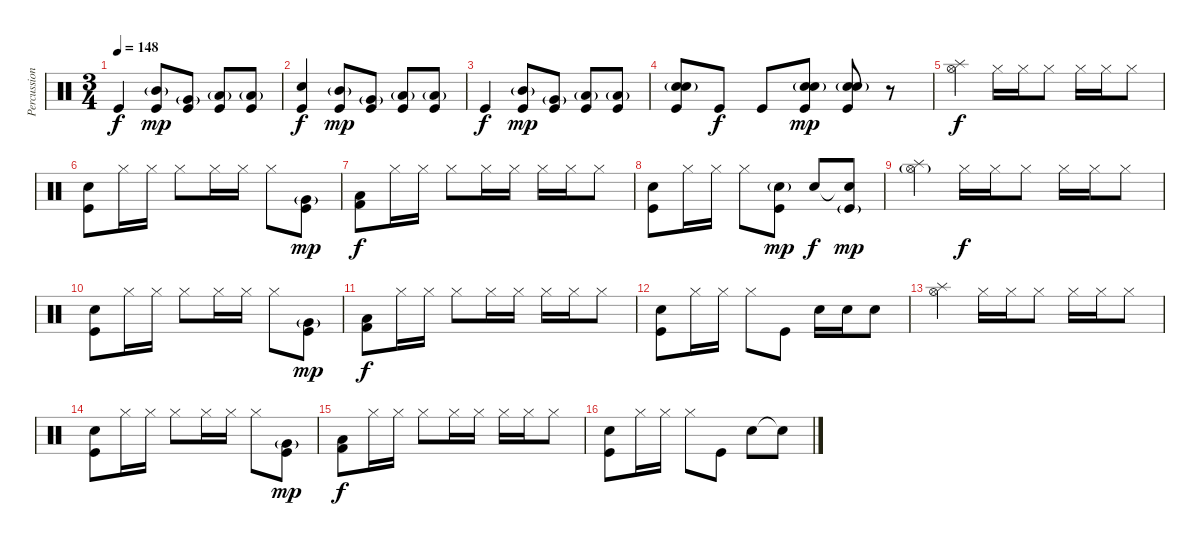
\track ("Percussion" "Percussion") {instrument percussion}
\staff {score}
\articulation defaults
\ts (3 4)
\tempo 148
\clef neutral
\ks c "Kick (hit)".4{dy f}
("Mid Tom (hit)"{g} "Kick (hit)").8{dy mp} ("Very Low Tom (hit)"{g} "Kick (hit)").8 ("Low Tom (hit)"{g} "Kick (hit)").8 ("Low Floor Tom (hit)"{g} "Kick (hit)").8 |
("Snare (hit) 2" "Kick (hit)").4{dy f} ("Mid Tom (hit)"{g} "Kick (hit)").8{dy mp} ("Very Low Tom (hit)"{g} "Kick (hit)").8 ("Low Tom (hit)"{g} "Kick (hit)").8 ("Low Floor Tom (hit)"{g} "Kick (hit)").8 |
"Kick (hit)".4{dy f} ("Mid Tom (hit)"{g} "Kick (hit)").8{dy mp} ("Very Low Tom (hit)"{g} "Kick (hit)").8 ("Low Tom (hit)"{g} "Kick (hit)").8 ("Low Floor Tom (hit)"{g} "Kick (hit)").8 |
("Snare (hit) 2" "Electric Snare (hit)"{g} "Kick (hit)").8{volume 8} "Kick (hit)".8{dy f} "Kick (hit)".8 ("Snare (hit) 2" "Electric Snare (hit)"{g} "Kick (hit)").8{dy mp} ("Snare (hit) 2" "Electric Snare (hit)"{g} "Kick (hit)").8 r.8 |
("Hi-Hat (open)" "Splash (hit)").4{dy f volume 5} "Hi-Hat (closed)".16 "Hi-Hat (closed)".16 "Hi-Hat (closed)".8 "Hi-Hat (closed)".16 "Hi-Hat (closed)".16 "Hi-Hat (closed)".8 |
("Snare (hit) 2" "Kick (hit)").8 "Hi-Hat (closed)".16 "Hi-Hat (closed)".16 "Hi-Hat (closed)".8 "Hi-Hat (closed)".16 "Hi-Hat (closed)".16 "Hi-Hat (closed)".8 ("Very Low Tom (hit)"{g} "Kick (hit)").8{dy mp} |
("Low Floor Tom (hit)" "Kick (hit) 2").8{dy f} "Hi-Hat (closed)".16 "Hi-Hat (closed)".16 "Hi-Hat (closed)".8 "Hi-Hat (closed)".16 "Hi-Hat (closed)".16 "Hi-Hat (closed)".16 "Hi-Hat (closed)".16 "Hi-Hat (closed)".8 |
("Snare (hit) 2" "Kick (hit)").8 "Hi-Hat (closed)".16 "Hi-Hat (closed)".16 "Hi-Hat (closed)".8 ("Snare (hit) 2"{g} "Kick (hit)").8{dy mp} "Snare (hit) 2".8{dy f} ("Snare (hit)"{t} "Kick (hit)"{g}).8{dy mp} |
("Hi-Hat (open)"{g} "Splash (hit)").4 "Hi-Hat (closed)".16{dy f} "Hi-Hat (closed)".16 "Hi-Hat (closed)".8 "Hi-Hat (closed)".16 "Hi-Hat (closed)".16 "Hi-Hat (closed)".8 |
("Snare (hit) 2" "Kick (hit)").8 "Hi-Hat (closed)".16 "Hi-Hat (closed)".16 "Hi-Hat (closed)".8 "Hi-Hat (closed)".16 "Hi-Hat (closed)".16 "Hi-Hat (closed)".8 ("Very Low Tom (hit)"{g} "Kick (hit)").8{dy mp} |
("Low Floor Tom (hit)" "Kick (hit) 2").8{dy f} "Hi-Hat (closed)".16 "Hi-Hat (closed)".16 "Hi-Hat (closed)".8 "Hi-Hat (closed)".16 "Hi-Hat (closed)".16 "Hi-Hat (closed)".16 "Hi-Hat (closed)".16 "Hi-Hat (closed)".8 |
("Snare (hit) 2" "Kick (hit)").8 "Hi-Hat (closed)".16 "Hi-Hat (closed)".16 "Hi-Hat (closed)".8 "Kick (hit)".8 "Snare (hit) 2".16 "Snare (hit) 2".16 "Snare (hit) 2".8 |
("Hi-Hat (open)" "Splash (hit)").4 "Hi-Hat (closed)".16 "Hi-Hat (closed)".16 "Hi-Hat (closed)".8 "Hi-Hat (closed)".16 "Hi-Hat (closed)".16 "Hi-Hat (closed)".8 |
("Snare (hit) 2" "Kick (hit)").8 "Hi-Hat (closed)".16 "Hi-Hat (closed)".16 "Hi-Hat (closed)".8 "Hi-Hat (closed)".16 "Hi-Hat (closed)".16 "Hi-Hat (closed)".8 ("Very Low Tom (hit)"{g} "Kick (hit)").8{dy mp} |
("Low Floor Tom (hit)" "Kick (hit) 2").8{dy f} "Hi-Hat (closed)".16 "Hi-Hat (closed)".16 "Hi-Hat (closed)".8 "Hi-Hat (closed)".16 "Hi-Hat (closed)".16 "Hi-Hat (closed)".16 "Hi-Hat (closed)".16 "Hi-Hat (closed)".8 |
("Snare (hit) 2" "Kick (hit)").8 "Hi-Hat (closed)".16 "Hi-Hat (closed)".16 "Hi-Hat (closed)".8 "Kick (hit)".8 "Snare (hit) 2".8 "Snare (hit)"{t}.8
